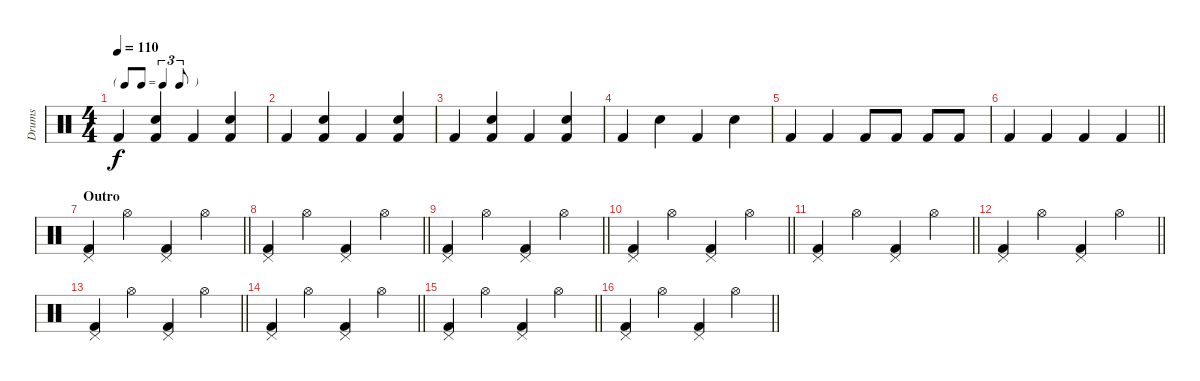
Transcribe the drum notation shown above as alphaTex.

\track ("Drums" "Drums") {instrument percussion}
\staff {score}
\articulation defaults
\ts (4 4)
\tf triplet8th
\tempo 110
\clef neutral
\ks c "Kick (hit) 2".4{dy f}
("Snare (hit) 2" "Kick (hit) 2").4 "Kick (hit) 2".4 ("Snare (hit) 2" "Kick (hit) 2").4 |
"Kick (hit) 2".4 ("Snare (hit) 2" "Kick (hit) 2").4 "Kick (hit) 2".4 ("Snare (hit) 2" "Kick (hit) 2").4 |
"Kick (hit) 2".4 ("Snare (hit) 2" "Kick (hit) 2").4 "Kick (hit) 2".4 ("Snare (hit) 2" "Kick (hit) 2").4 |
"Kick (hit) 2".4 "Snare (hit) 2".4 "Kick (hit) 2".4 "Snare (hit) 2".4 |
"Kick (hit) 2".4 "Kick (hit) 2".4 "Kick (hit) 2".8 "Kick (hit) 2".8 "Kick (hit) 2".8 "Kick (hit) 2".8 |
\barLineRight lightlight "Kick (hit) 2".4 "Kick (hit) 2".4 "Kick (hit) 2".4 "Kick (hit) 2".4
|
\section ("" "Outro")
\barLineRight lightlight
("Pedal Hi-Hat (hit)" "Kick (hit) 2").4 "Hi-Hat (open)".4 ("Pedal Hi-Hat (hit)" "Kick (hit) 2").4 "Hi-Hat (open)".4 |
\barLineRight lightlight
("Pedal Hi-Hat (hit)" "Kick (hit) 2").4 "Hi-Hat (open)".4 ("Pedal Hi-Hat (hit)" "Kick (hit) 2").4 "Hi-Hat (open)".4 |
\barLineRight lightlight
("Pedal Hi-Hat (hit)" "Kick (hit) 2").4 "Hi-Hat (open)".4 ("Pedal Hi-Hat (hit)" "Kick (hit) 2").4 "Hi-Hat (open)".4 |
\barLineRight lightlight
("Pedal Hi-Hat (hit)" "Kick (hit) 2").4 "Hi-Hat (open)".4 ("Pedal Hi-Hat (hit)" "Kick (hit) 2").4 "Hi-Hat (open)".4 |
\barLineRight lightlight
("Pedal Hi-Hat (hit)" "Kick (hit) 2").4 "Hi-Hat (open)".4 ("Pedal Hi-Hat (hit)" "Kick (hit) 2").4 "Hi-Hat (open)".4 |
\barLineRight lightlight
("Pedal Hi-Hat (hit)" "Kick (hit) 2").4 "Hi-Hat (open)".4 ("Pedal Hi-Hat (hit)" "Kick (hit) 2").4 "Hi-Hat (open)".4 |
\barLineRight lightlight
("Pedal Hi-Hat (hit)" "Kick (hit) 2").4 "Hi-Hat (open)".4 ("Pedal Hi-Hat (hit)" "Kick (hit) 2").4 "Hi-Hat (open)".4 |
\barLineRight lightlight
("Pedal Hi-Hat (hit)" "Kick (hit) 2").4 "Hi-Hat (open)".4 ("Pedal Hi-Hat (hit)" "Kick (hit) 2").4 "Hi-Hat (open)".4 |
\barLineRight lightlight
("Pedal Hi-Hat (hit)" "Kick (hit) 2").4 "Hi-Hat (open)".4 ("Pedal Hi-Hat (hit)" "Kick (hit) 2").4 "Hi-Hat (open)".4 |
\barLineRight lightlight
("Pedal Hi-Hat (hit)" "Kick (hit) 2").4 "Hi-Hat (open)".4 ("Pedal Hi-Hat (hit)" "Kick (hit) 2").4 "Hi-Hat (open)".4
